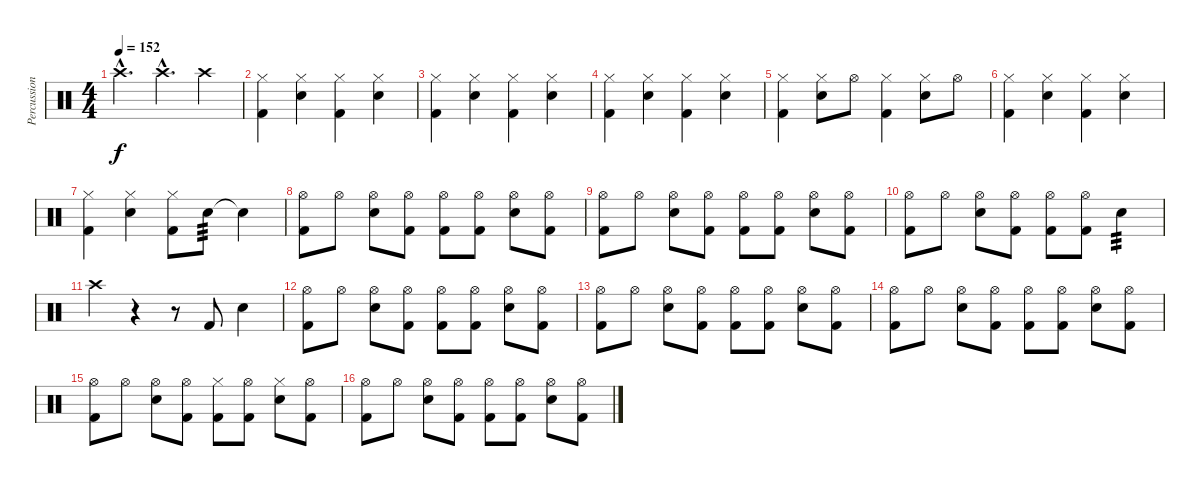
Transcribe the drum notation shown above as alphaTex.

\track ("Percussion" "Percussion") {instrument percussion}
\staff {score}
\articulation defaults
\ts (4 4)
\tempo 152
\clef neutral
\ks c "Crash high (hit)"{hac}.4{d dy f} "Crash high (hit)"{hac}.4{d} "Crash high (hit)".4
|
("Kick (hit) 2" "Hi-Hat (closed)").4 ("Snare (hit) 2" "Hi-Hat (closed)").4 ("Kick (hit) 2" "Hi-Hat (closed)").4 ("Snare (hit) 2" "Hi-Hat (closed)").4 |
("Kick (hit) 2" "Hi-Hat (closed)").4 ("Snare (hit) 2" "Hi-Hat (closed)").4 ("Kick (hit) 2" "Hi-Hat (closed)").4 ("Snare (hit) 2" "Hi-Hat (closed)").4 |
("Kick (hit) 2" "Hi-Hat (closed)").4 ("Snare (hit) 2" "Hi-Hat (closed)").4 ("Kick (hit) 2" "Hi-Hat (closed)").4 ("Snare (hit) 2" "Hi-Hat (closed)").4 |
("Kick (hit) 2" "Hi-Hat (closed)").4 ("Snare (hit) 2" "Hi-Hat (closed)").8 "Hi-Hat (open)".8 ("Kick (hit) 2" "Hi-Hat (closed)").4 ("Snare (hit) 2" "Hi-Hat (closed)").8 "Hi-Hat (open)".8 |
("Kick (hit) 2" "Hi-Hat (closed)").4 ("Snare (hit) 2" "Hi-Hat (closed)").4 ("Kick (hit) 2" "Hi-Hat (closed)").4 ("Snare (hit) 2" "Hi-Hat (closed)").4 |
("Kick (hit) 2" "Hi-Hat (closed)").4 ("Snare (hit) 2" "Hi-Hat (closed)").4 ("Kick (hit) 2" "Hi-Hat (closed)").8 "Snare (hit) 2".8{tp 3} "Snare (hit)"{t}.4 |
("Kick (hit) 2" "Hi-Hat (open)").8 "Hi-Hat (open)".8 ("Snare (hit) 2" "Hi-Hat (open)").8 ("Kick (hit) 2" "Hi-Hat (open)").8 ("Kick (hit) 2" "Hi-Hat (open)").8 ("Kick (hit) 2" "Hi-Hat (open)").8 ("Snare (hit) 2" "Hi-Hat (open)").8 ("Kick (hit) 2" "Hi-Hat (open)").8 |
("Kick (hit) 2" "Hi-Hat (open)").8 "Hi-Hat (open)".8 ("Snare (hit) 2" "Hi-Hat (open)").8 ("Kick (hit) 2" "Hi-Hat (open)").8 ("Kick (hit) 2" "Hi-Hat (open)").8 ("Kick (hit) 2" "Hi-Hat (open)").8 ("Snare (hit) 2" "Hi-Hat (open)").8 ("Kick (hit) 2" "Hi-Hat (open)").8 |
("Kick (hit) 2" "Hi-Hat (open)").8 "Hi-Hat (open)".8 ("Snare (hit) 2" "Hi-Hat (open)").8 ("Kick (hit) 2" "Hi-Hat (open)").8 ("Kick (hit) 2" "Hi-Hat (open)").8 ("Kick (hit) 2" "Hi-Hat (open)").8 "Snare (hit) 2".4{tp 3} |
"Crash high (hit)".4 r.4 r.8 "Kick (hit) 2".8 "Snare (hit) 2".4 |
("Kick (hit) 2" "Hi-Hat (open)").8 "Hi-Hat (open)".8 ("Snare (hit) 2" "Hi-Hat (open)").8 ("Kick (hit) 2" "Hi-Hat (open)").8 ("Kick (hit) 2" "Hi-Hat (open)").8 ("Kick (hit) 2" "Hi-Hat (open)").8 ("Snare (hit) 2" "Hi-Hat (open)").8 ("Kick (hit) 2" "Hi-Hat (open)").8 |
("Kick (hit) 2" "Hi-Hat (open)").8 "Hi-Hat (open)".8 ("Snare (hit) 2" "Hi-Hat (open)").8 ("Kick (hit) 2" "Hi-Hat (open)").8 ("Kick (hit) 2" "Hi-Hat (open)").8 ("Kick (hit) 2" "Hi-Hat (open)").8 ("Snare (hit) 2" "Hi-Hat (open)").8 ("Kick (hit) 2" "Hi-Hat (open)").8 |
("Kick (hit) 2" "Hi-Hat (open)").8 "Hi-Hat (open)".8 ("Snare (hit) 2" "Hi-Hat (open)").8 ("Kick (hit) 2" "Hi-Hat (open)").8 ("Kick (hit) 2" "Hi-Hat (open)").8 ("Kick (hit) 2" "Hi-Hat (open)").8 ("Snare (hit) 2" "Hi-Hat (open)").8 ("Kick (hit) 2" "Hi-Hat (open)").8 |
("Kick (hit) 2" "Hi-Hat (open)").8 "Hi-Hat (open)".8 ("Snare (hit) 2" "Hi-Hat (open)").8 ("Kick (hit) 2" "Hi-Hat (open)").8 ("Kick (hit) 2" "Hi-Hat (closed)").8 ("Kick (hit) 2" "Hi-Hat (open)").8 ("Snare (hit) 2" "Hi-Hat (closed)").8 ("Kick (hit) 2" "Hi-Hat (open)").8 |
("Kick (hit) 2" "Hi-Hat (open)").8 "Hi-Hat (open)".8 ("Snare (hit) 2" "Hi-Hat (open)").8 ("Kick (hit) 2" "Hi-Hat (open)").8 ("Kick (hit) 2" "Hi-Hat (open)").8 ("Kick (hit) 2" "Hi-Hat (open)").8 ("Snare (hit) 2" "Hi-Hat (open)").8 ("Kick (hit) 2" "Hi-Hat (open)").8
